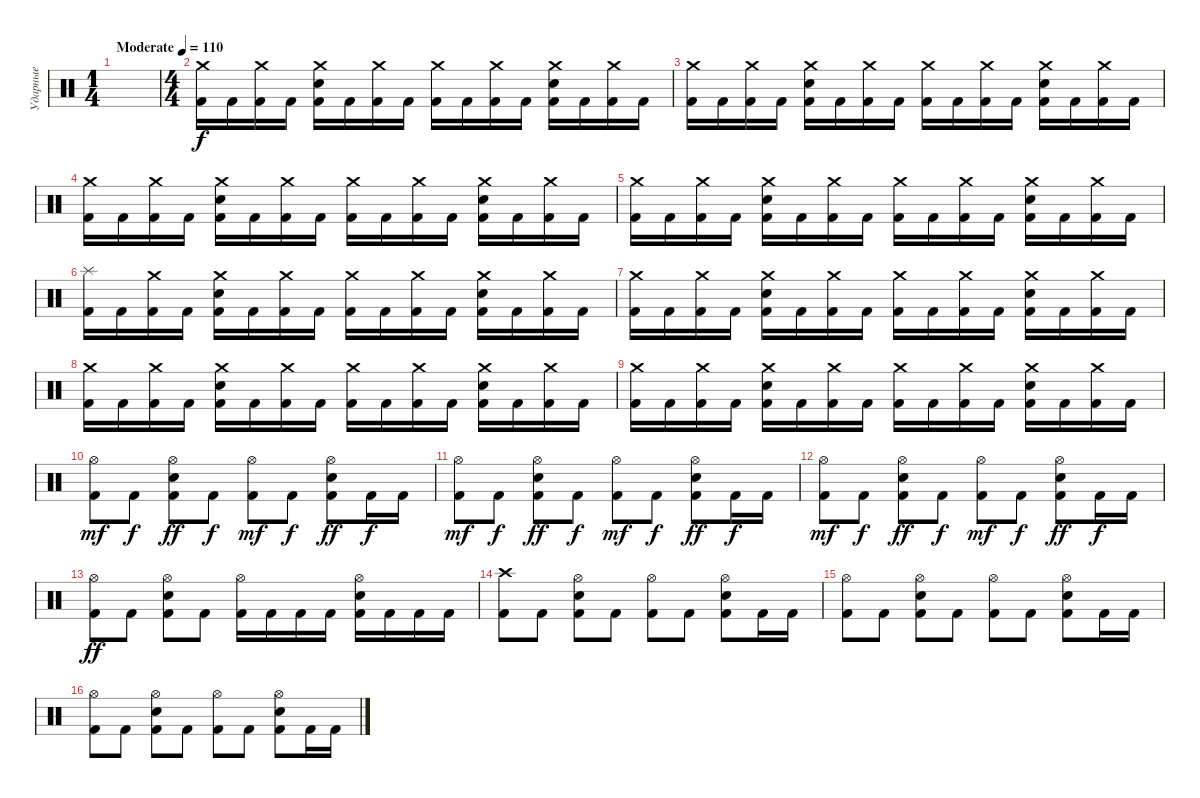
\track ("Ударные" "Ударные") {instrument percussion}
\staff {score}
\articulation defaults
\ts (1 4)
\tempo (110 "Moderate")
\clef neutral
\ks c
|
\ts (4 4)
("Crash medium (hit)" "Kick (hit) 2").16 "Kick (hit) 2".16 ("Crash medium (hit)" "Kick (hit) 2").16 "Kick (hit) 2".16 ("Crash medium (hit)" "Electric Snare (hit)" "Kick (hit) 2").16 "Kick (hit) 2".16 ("Crash medium (hit)" "Kick (hit) 2").16 "Kick (hit) 2".16 ("Crash medium (hit)" "Kick (hit) 2").16 "Kick (hit) 2".16 ("Crash medium (hit)" "Kick (hit) 2").16 "Kick (hit) 2".16 ("Crash medium (hit)" "Electric Snare (hit)" "Kick (hit) 2").16 "Kick (hit) 2".16 ("Crash medium (hit)" "Kick (hit) 2").16 "Kick (hit) 2".16 |
("Crash medium (hit)" "Kick (hit) 2").16 "Kick (hit) 2".16 ("Crash medium (hit)" "Kick (hit) 2").16 "Kick (hit) 2".16 ("Crash medium (hit)" "Electric Snare (hit)" "Kick (hit) 2").16 "Kick (hit) 2".16 ("Crash medium (hit)" "Kick (hit) 2").16 "Kick (hit) 2".16 ("Crash medium (hit)" "Kick (hit) 2").16 "Kick (hit) 2".16 ("Crash medium (hit)" "Kick (hit) 2").16 "Kick (hit) 2".16 ("Crash medium (hit)" "Electric Snare (hit)" "Kick (hit) 2").16 "Kick (hit) 2".16 ("Crash medium (hit)" "Kick (hit) 2").16 "Kick (hit) 2".16 |
("Crash medium (hit)" "Kick (hit) 2").16 "Kick (hit) 2".16 ("Crash medium (hit)" "Kick (hit) 2").16 "Kick (hit) 2".16 ("Crash medium (hit)" "Electric Snare (hit)" "Kick (hit) 2").16 "Kick (hit) 2".16 ("Crash medium (hit)" "Kick (hit) 2").16 "Kick (hit) 2".16 ("Crash medium (hit)" "Kick (hit) 2").16 "Kick (hit) 2".16 ("Crash medium (hit)" "Kick (hit) 2").16 "Kick (hit) 2".16 ("Crash medium (hit)" "Electric Snare (hit)" "Kick (hit) 2").16 "Kick (hit) 2".16 ("Crash medium (hit)" "Kick (hit) 2").16 "Kick (hit) 2".16 |
("Crash medium (hit)" "Kick (hit) 2").16 "Kick (hit) 2".16 ("Crash medium (hit)" "Kick (hit) 2").16 "Kick (hit) 2".16 ("Crash medium (hit)" "Electric Snare (hit)" "Kick (hit) 2").16 "Kick (hit) 2".16 ("Crash medium (hit)" "Kick (hit) 2").16 "Kick (hit) 2".16 ("Crash medium (hit)" "Kick (hit) 2").16 "Kick (hit) 2".16 ("Crash medium (hit)" "Kick (hit) 2").16 "Kick (hit) 2".16 ("Crash medium (hit)" "Electric Snare (hit)" "Kick (hit) 2").16 "Kick (hit) 2".16 ("Crash medium (hit)" "Kick (hit) 2").16 "Kick (hit) 2".16 |
("Splash (hit)" "Kick (hit) 2").16 "Kick (hit) 2".16 ("Crash medium (hit)" "Kick (hit) 2").16 "Kick (hit) 2".16 ("Crash medium (hit)" "Electric Snare (hit)" "Kick (hit) 2").16 "Kick (hit) 2".16 ("Crash medium (hit)" "Kick (hit) 2").16 "Kick (hit) 2".16 ("Crash medium (hit)" "Kick (hit) 2").16 "Kick (hit) 2".16 ("Crash medium (hit)" "Kick (hit) 2").16 "Kick (hit) 2".16 ("Crash medium (hit)" "Electric Snare (hit)" "Kick (hit) 2").16 "Kick (hit) 2".16 ("Crash medium (hit)" "Kick (hit) 2").16 "Kick (hit) 2".16 |
("Crash medium (hit)" "Kick (hit) 2").16 "Kick (hit) 2".16 ("Crash medium (hit)" "Kick (hit) 2").16 "Kick (hit) 2".16 ("Crash medium (hit)" "Electric Snare (hit)" "Kick (hit) 2").16 "Kick (hit) 2".16 ("Crash medium (hit)" "Kick (hit) 2").16 "Kick (hit) 2".16 ("Crash medium (hit)" "Kick (hit) 2").16 "Kick (hit) 2".16 ("Crash medium (hit)" "Kick (hit) 2").16 "Kick (hit) 2".16 ("Crash medium (hit)" "Electric Snare (hit)" "Kick (hit) 2").16 "Kick (hit) 2".16 ("Crash medium (hit)" "Kick (hit) 2").16 "Kick (hit) 2".16 |
("Crash medium (hit)" "Kick (hit) 2").16 "Kick (hit) 2".16 ("Crash medium (hit)" "Kick (hit) 2").16 "Kick (hit) 2".16 ("Crash medium (hit)" "Electric Snare (hit)" "Kick (hit) 2").16 "Kick (hit) 2".16 ("Crash medium (hit)" "Kick (hit) 2").16 "Kick (hit) 2".16 ("Crash medium (hit)" "Kick (hit) 2").16 "Kick (hit) 2".16 ("Crash medium (hit)" "Kick (hit) 2").16 "Kick (hit) 2".16 ("Crash medium (hit)" "Electric Snare (hit)" "Kick (hit) 2").16 "Kick (hit) 2".16 ("Crash medium (hit)" "Kick (hit) 2").16 "Kick (hit) 2".16 |
("Crash medium (hit)" "Kick (hit) 2").16 "Kick (hit) 2".16 ("Crash medium (hit)" "Kick (hit) 2").16 "Kick (hit) 2".16 ("Crash medium (hit)" "Electric Snare (hit)" "Kick (hit) 2").16 "Kick (hit) 2".16 ("Crash medium (hit)" "Kick (hit) 2").16 "Kick (hit) 2".16 ("Crash medium (hit)" "Kick (hit) 2").16 "Kick (hit) 2".16 ("Crash medium (hit)" "Kick (hit) 2").16 "Kick (hit) 2".16 ("Crash medium (hit)" "Electric Snare (hit)" "Kick (hit) 2").16 "Kick (hit) 2".16 ("Crash medium (hit)" "Kick (hit) 2").16 "Kick (hit) 2".16 |
("Hi-Hat (open)" "Kick (hit) 2").8{dy mf} "Kick (hit) 2".8{dy f} ("Hi-Hat (open)" "Electric Snare (hit)" "Kick (hit) 2").8{dy ff} "Kick (hit) 2".8{dy f} ("Hi-Hat (open)" "Kick (hit) 2").8{dy mf} "Kick (hit) 2".8{dy f} ("Hi-Hat (open)" "Electric Snare (hit)" "Kick (hit) 2").8{dy ff} "Kick (hit) 2".16{dy f} "Kick (hit) 2".16 |
("Hi-Hat (open)" "Kick (hit) 2").8{dy mf} "Kick (hit) 2".8{dy f} ("Hi-Hat (open)" "Electric Snare (hit)" "Kick (hit) 2").8{dy ff} "Kick (hit) 2".8{dy f} ("Hi-Hat (open)" "Kick (hit) 2").8{dy mf} "Kick (hit) 2".8{dy f} ("Hi-Hat (open)" "Electric Snare (hit)" "Kick (hit) 2").8{dy ff} "Kick (hit) 2".16{dy f} "Kick (hit) 2".16 |
("Hi-Hat (open)" "Kick (hit) 2").8{dy mf} "Kick (hit) 2".8{dy f} ("Hi-Hat (open)" "Electric Snare (hit)" "Kick (hit) 2").8{dy ff} "Kick (hit) 2".8{dy f} ("Hi-Hat (open)" "Kick (hit) 2").8{dy mf} "Kick (hit) 2".8{dy f} ("Hi-Hat (open)" "Electric Snare (hit)" "Kick (hit) 2").8{dy ff} "Kick (hit) 2".16{dy f} "Kick (hit) 2".16 |
("Hi-Hat (open)" "Kick (hit) 2").8{dy ff} "Kick (hit) 2".8 ("Hi-Hat (open)" "Electric Snare (hit)" "Kick (hit) 2").8 "Kick (hit) 2".8 ("Hi-Hat (open)" "Kick (hit) 2").16 "Kick (hit) 2".16 "Kick (hit) 2".16 "Kick (hit) 2".16 ("Hi-Hat (open)" "Electric Snare (hit)" "Kick (hit) 2").16 "Kick (hit) 2".16 "Kick (hit) 2".16 "Kick (hit) 2".16 |
("Crash high (hit)" "Kick (hit) 2").8 "Kick (hit) 2".8 ("Hi-Hat (open)" "Electric Snare (hit)" "Kick (hit) 2").8 "Kick (hit) 2".8 ("Hi-Hat (open)" "Kick (hit) 2").8 "Kick (hit) 2".8 ("Hi-Hat (open)" "Electric Snare (hit)" "Kick (hit) 2").8 "Kick (hit) 2".16 "Kick (hit) 2".16 |
("Hi-Hat (open)" "Kick (hit) 2").8 "Kick (hit) 2".8 ("Hi-Hat (open)" "Electric Snare (hit)" "Kick (hit) 2").8 "Kick (hit) 2".8 ("Hi-Hat (open)" "Kick (hit) 2").8 "Kick (hit) 2".8 ("Hi-Hat (open)" "Electric Snare (hit)" "Kick (hit) 2").8 "Kick (hit) 2".16 "Kick (hit) 2".16 |
("Hi-Hat (open)" "Kick (hit) 2").8 "Kick (hit) 2".8 ("Hi-Hat (open)" "Electric Snare (hit)" "Kick (hit) 2").8 "Kick (hit) 2".8 ("Hi-Hat (open)" "Kick (hit) 2").8 "Kick (hit) 2".8 ("Hi-Hat (open)" "Electric Snare (hit)" "Kick (hit) 2").8 "Kick (hit) 2".16 "Kick (hit) 2".16
